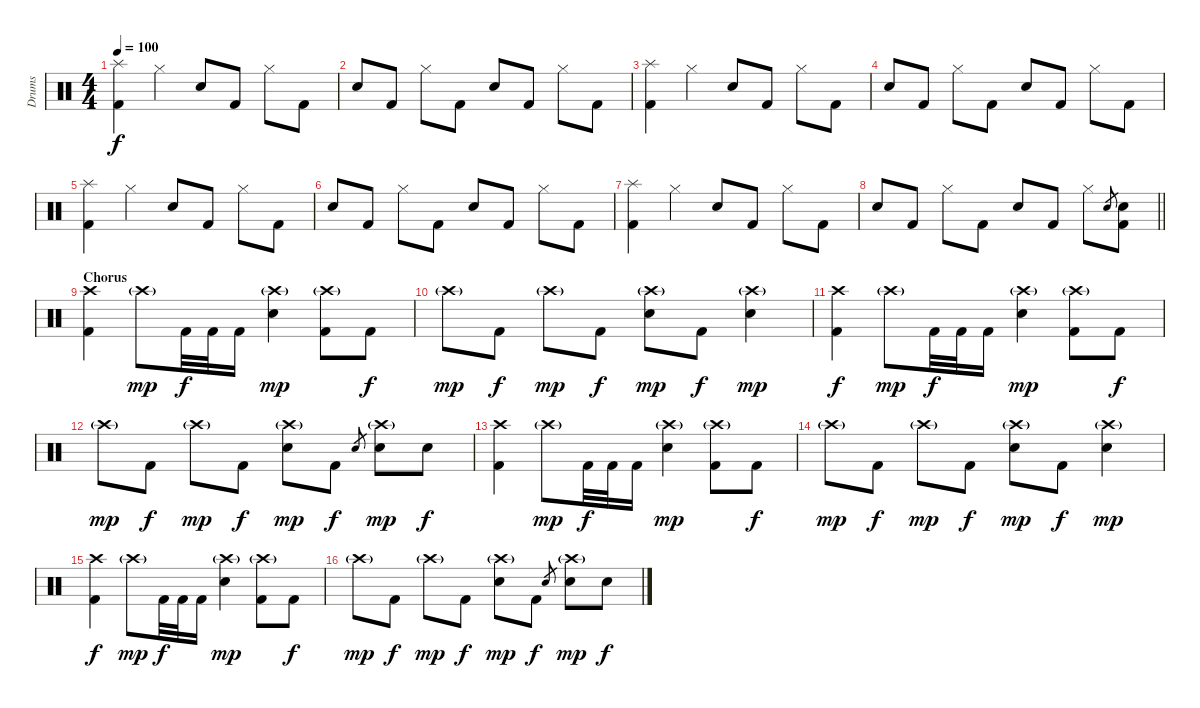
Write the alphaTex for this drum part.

\track ("Drums" "Drums") {instrument percussion}
\staff {score}
\articulation defaults
\ts (4 4)
\tempo 100
\clef neutral
\ks c
("Splash (hit)" "Kick (hit) 2").4{dy f} "Hi-Hat (closed)".4 "Snare (hit) 2".8 "Kick (hit) 2".8 "Hi-Hat (closed)".8 "Kick (hit) 2".8 |
"Snare (hit) 2".8 "Kick (hit) 2".8 "Hi-Hat (closed)".8 "Kick (hit) 2".8 "Snare (hit) 2".8 "Kick (hit) 2".8 "Hi-Hat (closed)".8 "Kick (hit) 2".8 |
("Splash (hit)" "Kick (hit) 2").4 "Hi-Hat (closed)".4 "Snare (hit) 2".8 "Kick (hit) 2".8 "Hi-Hat (closed)".8 "Kick (hit) 2".8 |
"Snare (hit) 2".8 "Kick (hit) 2".8 "Hi-Hat (closed)".8 "Kick (hit) 2".8 "Snare (hit) 2".8 "Kick (hit) 2".8 "Hi-Hat (closed)".8 "Kick (hit) 2".8 |
("Splash (hit)" "Kick (hit) 2").4 "Hi-Hat (closed)".4 "Snare (hit) 2".8 "Kick (hit) 2".8 "Hi-Hat (closed)".8 "Kick (hit) 2".8 |
"Snare (hit) 2".8 "Kick (hit) 2".8 "Hi-Hat (closed)".8 "Kick (hit) 2".8 "Snare (hit) 2".8 "Kick (hit) 2".8 "Hi-Hat (closed)".8 "Kick (hit) 2".8 |
("Splash (hit)" "Kick (hit) 2").4 "Hi-Hat (closed)".4 "Snare (hit) 2".8 "Kick (hit) 2".8 "Hi-Hat (closed)".8 "Kick (hit) 2".8 |
\barLineRight lightlight "Snare (hit) 2".8 "Kick (hit) 2".8 "Hi-Hat (closed)".8 "Kick (hit) 2".8 "Snare (hit) 2".8 "Kick (hit) 2".8 "Hi-Hat (closed)".8 "Snare (hit) 2".8{gr}
("Snare (hit) 2" "Kick (hit) 2").8 |
\section ("" "Chorus")
("Crash high (hit)" "Kick (hit) 2").4 "Crash high (hit)"{g}.8{dy mp} "Kick (hit) 2".32{dy f} "Kick (hit) 2".32 "Kick (hit) 2".16 ("Crash high (hit)"{g} "Snare (hit) 2").4{dy mp} ("Crash high (hit)"{g} "Kick (hit) 2").8 "Kick (hit) 2".8{dy f} |
"Crash high (hit)"{g}.8{dy mp} "Kick (hit) 2".8{dy f} "Crash high (hit)"{g}.8{dy mp} "Kick (hit) 2".8{dy f} ("Crash high (hit)"{g} "Snare (hit) 2").8{dy mp} "Kick (hit) 2".8{dy f} ("Crash high (hit)"{g} "Snare (hit) 2").4{dy mp} |
("Crash high (hit)" "Kick (hit) 2").4{dy f} "Crash high (hit)"{g}.8{dy mp} "Kick (hit) 2".32{dy f} "Kick (hit) 2".32 "Kick (hit) 2".16 ("Crash high (hit)"{g} "Snare (hit) 2").4{dy mp} ("Crash high (hit)"{g} "Kick (hit) 2").8 "Kick (hit) 2".8{dy f} |
"Crash high (hit)"{g}.8{dy mp} "Kick (hit) 2".8{dy f} "Crash high (hit)"{g}.8{dy mp} "Kick (hit) 2".8{dy f} ("Crash high (hit)"{g} "Snare (hit) 2").8{dy mp} "Kick (hit) 2".8{dy f} "Snare (hit) 2".8{gr} ("Crash high (hit)"{g} "Snare (hit) 2").8{dy mp} "Snare (hit) 2".8{dy f} |
("Crash high (hit)" "Kick (hit) 2").4 "Crash high (hit)"{g}.8{dy mp} "Kick (hit) 2".32{dy f} "Kick (hit) 2".32 "Kick (hit) 2".16 ("Crash high (hit)"{g} "Snare (hit) 2").4{dy mp} ("Crash high (hit)"{g} "Kick (hit) 2").8 "Kick (hit) 2".8{dy f} |
"Crash high (hit)"{g}.8{dy mp} "Kick (hit) 2".8{dy f} "Crash high (hit)"{g}.8{dy mp} "Kick (hit) 2".8{dy f} ("Crash high (hit)"{g} "Snare (hit) 2").8{dy mp} "Kick (hit) 2".8{dy f} ("Crash high (hit)"{g} "Snare (hit) 2").4{dy mp} |
("Crash high (hit)" "Kick (hit) 2").4{dy f} "Crash high (hit)"{g}.8{dy mp} "Kick (hit) 2".32{dy f} "Kick (hit) 2".32 "Kick (hit) 2".16 ("Crash high (hit)"{g} "Snare (hit) 2").4{dy mp} ("Crash high (hit)"{g} "Kick (hit) 2").8 "Kick (hit) 2".8{dy f} |
"Crash high (hit)"{g}.8{dy mp} "Kick (hit) 2".8{dy f} "Crash high (hit)"{g}.8{dy mp} "Kick (hit) 2".8{dy f} ("Crash high (hit)"{g} "Snare (hit) 2").8{dy mp} "Kick (hit) 2".8{dy f} "Snare (hit) 2".8{gr} ("Crash high (hit)"{g} "Snare (hit) 2").8{dy mp} "Snare (hit) 2".8{dy f}
